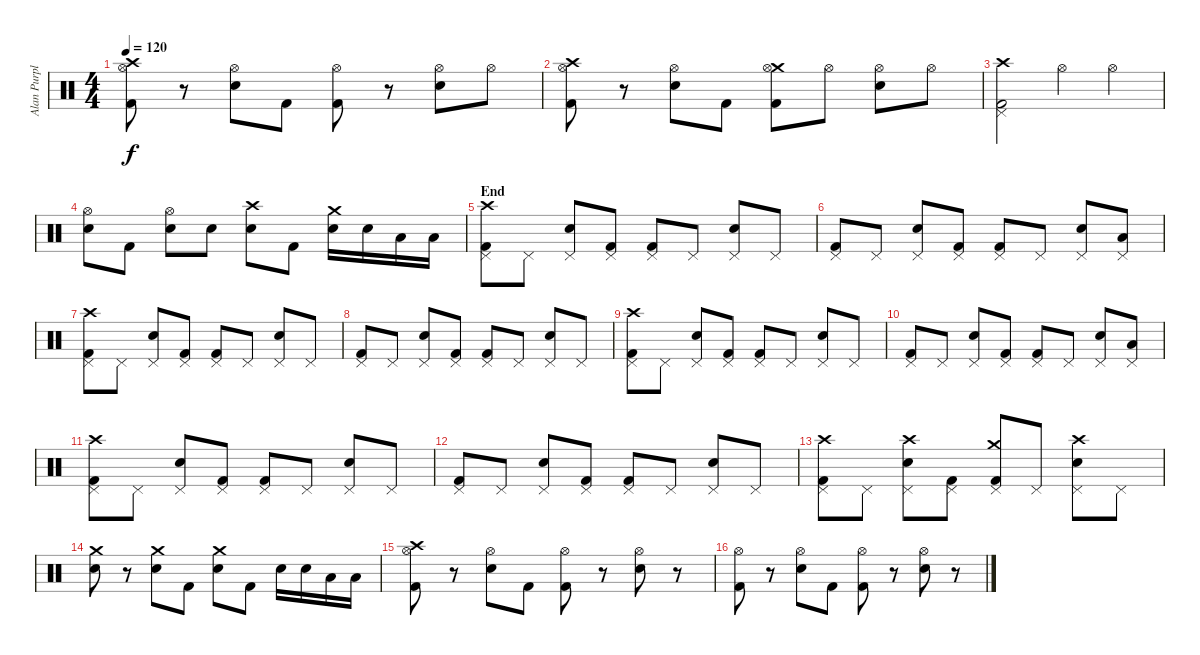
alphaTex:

\track ("Alan Purple" "Alan Purpl") {instrument percussion}
\staff {score}
\articulation defaults
\ts (4 4)
\tempo 120
\clef neutral
\ks c
("Crash high (hit)" "Hi-Hat (open)" "Kick (hit) 2").8{dy f} r.8 ("Hi-Hat (open)" "Snare (hit) 2").8 "Kick (hit) 2".8 ("Hi-Hat (open)" "Kick (hit) 2").8 r.8 ("Hi-Hat (open)" "Snare (hit) 2").8 "Hi-Hat (open)".8 |
("Crash high (hit)" "Hi-Hat (open)" "Kick (hit) 2").8 r.8 ("Hi-Hat (open)" "Snare (hit) 2").8 "Kick (hit) 2".8 ("Crash medium (hit)" "Hi-Hat (open)" "Kick (hit) 2").8 "Hi-Hat (open)".8 ("Hi-Hat (open)" "Snare (hit) 2").8 "Hi-Hat (open)".8 |
("Crash high (hit)" "Pedal Hi-Hat (hit)" "Kick (hit) 2").2 "Hi-Hat (open)".4 "Hi-Hat (open)".4 |
("Hi-Hat (open)" "Snare (hit) 2").8 "Kick (hit) 2".8 ("Hi-Hat (open)" "Electric Snare (hit)").8 "Snare (hit) 2".8 ("Crash high (hit)" "Snare (hit) 2").8 "Kick (hit) 2".8 ("Crash medium (hit)" "Electric Snare (hit)").16 "Electric Snare (hit)".16 "Low Tom (hit)".16 "Low Tom (hit)".16 |
\section ("" "End")
("Crash high (hit)" "Pedal Hi-Hat (hit)" "Kick (hit) 2").8 "Pedal Hi-Hat (hit)".8 ("Pedal Hi-Hat (hit)" "Snare (hit) 2").8 ("Pedal Hi-Hat (hit)" "Kick (hit) 2").8 ("Pedal Hi-Hat (hit)" "Kick (hit) 2").8 "Pedal Hi-Hat (hit)".8 ("Pedal Hi-Hat (hit)" "Snare (hit) 2").8 "Pedal Hi-Hat (hit)".8 |
("Pedal Hi-Hat (hit)" "Kick (hit) 2").8 "Pedal Hi-Hat (hit)".8 ("Pedal Hi-Hat (hit)" "Snare (hit) 2").8 ("Pedal Hi-Hat (hit)" "Kick (hit) 2").8 ("Pedal Hi-Hat (hit)" "Kick (hit) 2").8 "Pedal Hi-Hat (hit)".8 ("Pedal Hi-Hat (hit)" "Snare (hit) 2").8 ("Pedal Hi-Hat (hit)" "Low Tom (hit)").8 |
("Crash high (hit)" "Pedal Hi-Hat (hit)" "Kick (hit) 2").8 "Pedal Hi-Hat (hit)".8 ("Pedal Hi-Hat (hit)" "Snare (hit) 2").8 ("Pedal Hi-Hat (hit)" "Kick (hit) 2").8 ("Pedal Hi-Hat (hit)" "Kick (hit) 2").8 "Pedal Hi-Hat (hit)".8 ("Pedal Hi-Hat (hit)" "Snare (hit) 2").8 "Pedal Hi-Hat (hit)".8 |
("Pedal Hi-Hat (hit)" "Kick (hit) 2").8 "Pedal Hi-Hat (hit)".8 ("Pedal Hi-Hat (hit)" "Snare (hit) 2").8 ("Pedal Hi-Hat (hit)" "Kick (hit) 2").8 ("Pedal Hi-Hat (hit)" "Kick (hit) 2").8 "Pedal Hi-Hat (hit)".8 ("Pedal Hi-Hat (hit)" "Snare (hit) 2").8 "Pedal Hi-Hat (hit)".8 |
("Crash high (hit)" "Pedal Hi-Hat (hit)" "Kick (hit) 2").8 "Pedal Hi-Hat (hit)".8 ("Pedal Hi-Hat (hit)" "Snare (hit) 2").8 ("Pedal Hi-Hat (hit)" "Kick (hit) 2").8 ("Pedal Hi-Hat (hit)" "Kick (hit) 2").8 "Pedal Hi-Hat (hit)".8 ("Pedal Hi-Hat (hit)" "Snare (hit) 2").8 "Pedal Hi-Hat (hit)".8 |
("Pedal Hi-Hat (hit)" "Kick (hit) 2").8 "Pedal Hi-Hat (hit)".8 ("Pedal Hi-Hat (hit)" "Snare (hit) 2").8 ("Pedal Hi-Hat (hit)" "Kick (hit) 2").8 ("Pedal Hi-Hat (hit)" "Kick (hit) 2").8 "Pedal Hi-Hat (hit)".8 ("Pedal Hi-Hat (hit)" "Snare (hit) 2").8 ("Pedal Hi-Hat (hit)" "Low Tom (hit)").8 |
("Crash high (hit)" "Pedal Hi-Hat (hit)" "Kick (hit) 2").8 "Pedal Hi-Hat (hit)".8 ("Pedal Hi-Hat (hit)" "Snare (hit) 2").8 ("Pedal Hi-Hat (hit)" "Kick (hit) 2").8 ("Pedal Hi-Hat (hit)" "Kick (hit) 2").8 "Pedal Hi-Hat (hit)".8 ("Pedal Hi-Hat (hit)" "Snare (hit) 2").8 "Pedal Hi-Hat (hit)".8 |
("Pedal Hi-Hat (hit)" "Kick (hit) 2").8 "Pedal Hi-Hat (hit)".8 ("Pedal Hi-Hat (hit)" "Snare (hit) 2").8 ("Pedal Hi-Hat (hit)" "Kick (hit) 2").8 ("Pedal Hi-Hat (hit)" "Kick (hit) 2").8 "Pedal Hi-Hat (hit)".8 ("Pedal Hi-Hat (hit)" "Snare (hit) 2").8 "Pedal Hi-Hat (hit)".8 |
("Crash high (hit)" "Pedal Hi-Hat (hit)" "Kick (hit) 2").8 "Pedal Hi-Hat (hit)".8 ("Crash high (hit)" "Pedal Hi-Hat (hit)" "Snare (hit) 2").8 ("Pedal Hi-Hat (hit)" "Kick (hit) 2").8 ("Crash medium (hit)" "Pedal Hi-Hat (hit)" "Kick (hit) 2").8 "Pedal Hi-Hat (hit)".8 ("Crash high (hit)" "Pedal Hi-Hat (hit)" "Snare (hit) 2").8 "Pedal Hi-Hat (hit)".8 |
("Crash medium (hit)" "Snare (hit) 2").8 r.8 ("Crash medium (hit)" "Snare (hit) 2").8 "Kick (hit) 2".8 ("Crash medium (hit)" "Snare (hit) 2").8 "Kick (hit) 2".8 "Snare (hit) 2".16 "Snare (hit) 2".16 "Low Tom (hit)".16 "Low Tom (hit)".16 |
("Crash high (hit)" "Hi-Hat (open)" "Kick (hit) 2").8 r.8 ("Hi-Hat (open)" "Snare (hit) 2").8 "Kick (hit) 2".8 ("Hi-Hat (open)" "Kick (hit) 2").8 r.8 ("Hi-Hat (open)" "Snare (hit) 2").8 r.8 |
("Hi-Hat (open)" "Kick (hit) 2").8 r.8 ("Hi-Hat (open)" "Snare (hit) 2").8 "Kick (hit) 2".8 ("Hi-Hat (open)" "Kick (hit) 2").8 r.8 ("Hi-Hat (open)" "Snare (hit) 2").8 r.8
